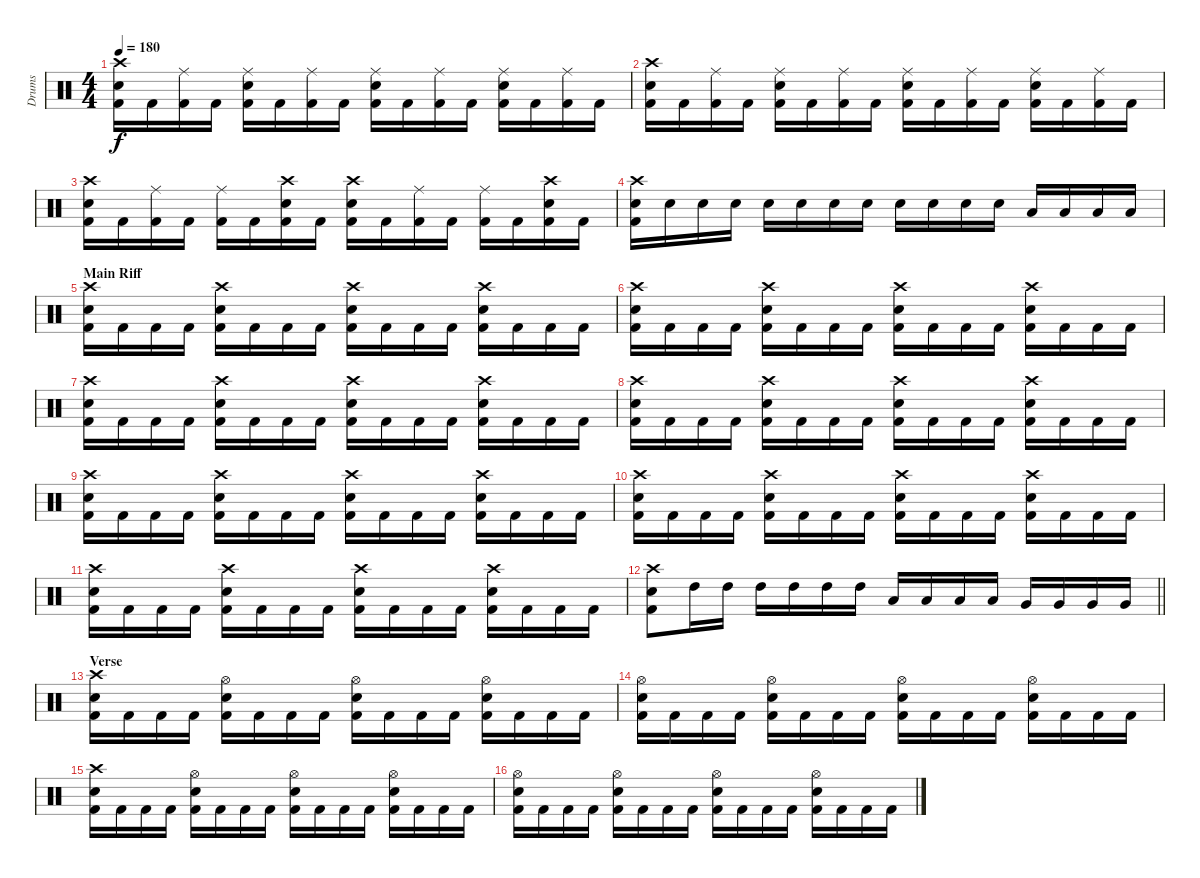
\track ("Drums" "Drums") {instrument percussion}
\staff {score}
\articulation defaults
\ts (4 4)
\tempo 180
\clef neutral
\ks c
("Crash high (hit)" "Electric Snare (hit)" "Kick (hit) 2").16{dy f} "Kick (hit) 2".16 ("Ride (middle)" "Kick (hit) 2").16 "Kick (hit) 2".16 ("Ride (middle)" "Electric Snare (hit)" "Kick (hit) 2").16 "Kick (hit) 2".16 ("Ride (middle)" "Kick (hit) 2").16 "Kick (hit) 2".16 ("Ride (middle)" "Electric Snare (hit)" "Kick (hit) 2").16 "Kick (hit) 2".16 ("Ride (middle)" "Kick (hit) 2").16 "Kick (hit) 2".16 ("Ride (middle)" "Electric Snare (hit)" "Kick (hit) 2").16 "Kick (hit) 2".16 ("Ride (middle)" "Kick (hit) 2").16 "Kick (hit) 2".16 |
("Crash high (hit)" "Electric Snare (hit)" "Kick (hit) 2").16 "Kick (hit) 2".16 ("Ride (middle)" "Kick (hit) 2").16 "Kick (hit) 2".16 ("Ride (middle)" "Electric Snare (hit)" "Kick (hit) 2").16 "Kick (hit) 2".16 ("Ride (middle)" "Kick (hit) 2").16 "Kick (hit) 2".16 ("Ride (middle)" "Electric Snare (hit)" "Kick (hit) 2").16 "Kick (hit) 2".16 ("Ride (middle)" "Kick (hit) 2").16 "Kick (hit) 2".16 ("Ride (middle)" "Electric Snare (hit)" "Kick (hit) 2").16 "Kick (hit) 2".16 ("Ride (middle)" "Kick (hit) 2").16 "Kick (hit) 2".16 |
("Crash high (hit)" "Electric Snare (hit)" "Kick (hit) 2").16 "Kick (hit) 2".16 ("Ride (middle)" "Kick (hit) 2").16 "Kick (hit) 2".16 ("Ride (middle)" "Kick (hit) 2").16 "Kick (hit) 2".16 ("Crash high (hit)" "Electric Snare (hit)" "Kick (hit) 2").16 "Kick (hit) 2".16 ("Crash high (hit)" "Electric Snare (hit)" "Kick (hit) 2").16 "Kick (hit) 2".16 ("Ride (middle)" "Kick (hit) 2").16 "Kick (hit) 2".16 ("Ride (middle)" "Kick (hit) 2").16 "Kick (hit) 2".16 ("Crash high (hit)" "Electric Snare (hit)" "Kick (hit) 2").16 "Kick (hit) 2".16 |
("Crash high (hit)" "Electric Snare (hit)" "Kick (hit) 2").16 "Electric Snare (hit)".16 "Electric Snare (hit)".16 "Electric Snare (hit)".16 "Electric Snare (hit)".16 "Electric Snare (hit)".16 "Electric Snare (hit)".16 "Electric Snare (hit)".16 "Electric Snare (hit)".16 "Electric Snare (hit)".16 "Electric Snare (hit)".16 "Electric Snare (hit)".16 "Low Tom (hit)".16 "Low Tom (hit)".16 "Low Tom (hit)".16 "Low Tom (hit)".16 |
\section ("" "Main Riff")
("Crash high (hit)" "Electric Snare (hit)" "Kick (hit) 2").16 "Kick (hit) 2".16 "Kick (hit) 2".16 "Kick (hit) 2".16 ("Crash high (hit)" "Electric Snare (hit)" "Kick (hit) 2").16 "Kick (hit) 2".16 "Kick (hit) 2".16 "Kick (hit) 2".16 ("Crash high (hit)" "Electric Snare (hit)" "Kick (hit) 2").16 "Kick (hit) 2".16 "Kick (hit) 2".16 "Kick (hit) 2".16 ("Crash high (hit)" "Electric Snare (hit)" "Kick (hit) 2").16 "Kick (hit) 2".16 "Kick (hit) 2".16 "Kick (hit) 2".16 |
("Crash high (hit)" "Electric Snare (hit)" "Kick (hit) 2").16 "Kick (hit) 2".16 "Kick (hit) 2".16 "Kick (hit) 2".16 ("Crash high (hit)" "Electric Snare (hit)" "Kick (hit) 2").16 "Kick (hit) 2".16 "Kick (hit) 2".16 "Kick (hit) 2".16 ("Crash high (hit)" "Electric Snare (hit)" "Kick (hit) 2").16 "Kick (hit) 2".16 "Kick (hit) 2".16 "Kick (hit) 2".16 ("Crash high (hit)" "Electric Snare (hit)" "Kick (hit) 2").16 "Kick (hit) 2".16 "Kick (hit) 2".16 "Kick (hit) 2".16 |
("Crash high (hit)" "Electric Snare (hit)" "Kick (hit) 2").16 "Kick (hit) 2".16 "Kick (hit) 2".16 "Kick (hit) 2".16 ("Crash high (hit)" "Electric Snare (hit)" "Kick (hit) 2").16 "Kick (hit) 2".16 "Kick (hit) 2".16 "Kick (hit) 2".16 ("Crash high (hit)" "Electric Snare (hit)" "Kick (hit) 2").16 "Kick (hit) 2".16 "Kick (hit) 2".16 "Kick (hit) 2".16 ("Crash high (hit)" "Electric Snare (hit)" "Kick (hit) 2").16 "Kick (hit) 2".16 "Kick (hit) 2".16 "Kick (hit) 2".16 |
("Crash high (hit)" "Electric Snare (hit)" "Kick (hit) 2").16 "Kick (hit) 2".16 "Kick (hit) 2".16 "Kick (hit) 2".16 ("Crash high (hit)" "Electric Snare (hit)" "Kick (hit) 2").16 "Kick (hit) 2".16 "Kick (hit) 2".16 "Kick (hit) 2".16 ("Crash high (hit)" "Electric Snare (hit)" "Kick (hit) 2").16 "Kick (hit) 2".16 "Kick (hit) 2".16 "Kick (hit) 2".16 ("Crash high (hit)" "Electric Snare (hit)" "Kick (hit) 2").16 "Kick (hit) 2".16 "Kick (hit) 2".16 "Kick (hit) 2".16 |
("Crash high (hit)" "Electric Snare (hit)" "Kick (hit) 2").16 "Kick (hit) 2".16 "Kick (hit) 2".16 "Kick (hit) 2".16 ("Crash high (hit)" "Electric Snare (hit)" "Kick (hit) 2").16 "Kick (hit) 2".16 "Kick (hit) 2".16 "Kick (hit) 2".16 ("Crash high (hit)" "Electric Snare (hit)" "Kick (hit) 2").16 "Kick (hit) 2".16 "Kick (hit) 2".16 "Kick (hit) 2".16 ("Crash high (hit)" "Electric Snare (hit)" "Kick (hit) 2").16 "Kick (hit) 2".16 "Kick (hit) 2".16 "Kick (hit) 2".16 |
("Crash high (hit)" "Electric Snare (hit)" "Kick (hit) 2").16 "Kick (hit) 2".16 "Kick (hit) 2".16 "Kick (hit) 2".16 ("Crash high (hit)" "Electric Snare (hit)" "Kick (hit) 2").16 "Kick (hit) 2".16 "Kick (hit) 2".16 "Kick (hit) 2".16 ("Crash high (hit)" "Electric Snare (hit)" "Kick (hit) 2").16 "Kick (hit) 2".16 "Kick (hit) 2".16 "Kick (hit) 2".16 ("Crash high (hit)" "Electric Snare (hit)" "Kick (hit) 2").16 "Kick (hit) 2".16 "Kick (hit) 2".16 "Kick (hit) 2".16 |
("Crash high (hit)" "Electric Snare (hit)" "Kick (hit) 2").16 "Kick (hit) 2".16 "Kick (hit) 2".16 "Kick (hit) 2".16 ("Crash high (hit)" "Electric Snare (hit)" "Kick (hit) 2").16 "Kick (hit) 2".16 "Kick (hit) 2".16 "Kick (hit) 2".16 ("Crash high (hit)" "Electric Snare (hit)" "Kick (hit) 2").16 "Kick (hit) 2".16 "Kick (hit) 2".16 "Kick (hit) 2".16 ("Crash high (hit)" "Electric Snare (hit)" "Kick (hit) 2").16 "Kick (hit) 2".16 "Kick (hit) 2".16 "Kick (hit) 2".16 |
\barLineRight lightlight
("Crash high (hit)" "Electric Snare (hit)" "Kick (hit) 2").8 "High Tom (hit)".16 "High Tom (hit)".16 "High Tom (hit)".16 "High Tom (hit)".16 "High Tom (hit)".16 "High Tom (hit)".16 "Low Tom (hit)".16 "Low Tom (hit)".16 "Low Tom (hit)".16 "Low Tom (hit)".16 "Very Low Tom (hit)".16 "Very Low Tom (hit)".16 "Very Low Tom (hit)".16 "Very Low Tom (hit)".16 |
\section ("" "Verse")
("Crash high (hit)" "Electric Snare (hit)" "Kick (hit) 2").16 "Kick (hit) 2".16 "Kick (hit) 2".16 "Kick (hit) 2".16 ("Hi-Hat (open)" "Electric Snare (hit)" "Kick (hit) 2").16 "Kick (hit) 2".16 "Kick (hit) 2".16 "Kick (hit) 2".16 ("Hi-Hat (open)" "Electric Snare (hit)" "Kick (hit) 2").16 "Kick (hit) 2".16 "Kick (hit) 2".16 "Kick (hit) 2".16 ("Hi-Hat (open)" "Electric Snare (hit)" "Kick (hit) 2").16 "Kick (hit) 2".16 "Kick (hit) 2".16 "Kick (hit) 2".16 |
("Hi-Hat (open)" "Electric Snare (hit)" "Kick (hit) 2").16 "Kick (hit) 2".16 "Kick (hit) 2".16 "Kick (hit) 2".16 ("Hi-Hat (open)" "Electric Snare (hit)" "Kick (hit) 2").16 "Kick (hit) 2".16 "Kick (hit) 2".16 "Kick (hit) 2".16 ("Hi-Hat (open)" "Electric Snare (hit)" "Kick (hit) 2").16 "Kick (hit) 2".16 "Kick (hit) 2".16 "Kick (hit) 2".16 ("Hi-Hat (open)" "Electric Snare (hit)" "Kick (hit) 2").16 "Kick (hit) 2".16 "Kick (hit) 2".16 "Kick (hit) 2".16 |
("Crash high (hit)" "Electric Snare (hit)" "Kick (hit) 2").16 "Kick (hit) 2".16 "Kick (hit) 2".16 "Kick (hit) 2".16 ("Hi-Hat (open)" "Electric Snare (hit)" "Kick (hit) 2").16 "Kick (hit) 2".16 "Kick (hit) 2".16 "Kick (hit) 2".16 ("Hi-Hat (open)" "Electric Snare (hit)" "Kick (hit) 2").16 "Kick (hit) 2".16 "Kick (hit) 2".16 "Kick (hit) 2".16 ("Hi-Hat (open)" "Electric Snare (hit)" "Kick (hit) 2").16 "Kick (hit) 2".16 "Kick (hit) 2".16 "Kick (hit) 2".16 |
("Hi-Hat (open)" "Electric Snare (hit)" "Kick (hit) 2").16 "Kick (hit) 2".16 "Kick (hit) 2".16 "Kick (hit) 2".16 ("Hi-Hat (open)" "Electric Snare (hit)" "Kick (hit) 2").16 "Kick (hit) 2".16 "Kick (hit) 2".16 "Kick (hit) 2".16 ("Hi-Hat (open)" "Electric Snare (hit)" "Kick (hit) 2").16 "Kick (hit) 2".16 "Kick (hit) 2".16 "Kick (hit) 2".16 ("Hi-Hat (open)" "Electric Snare (hit)" "Kick (hit) 2").16 "Kick (hit) 2".16 "Kick (hit) 2".16 "Kick (hit) 2".16
